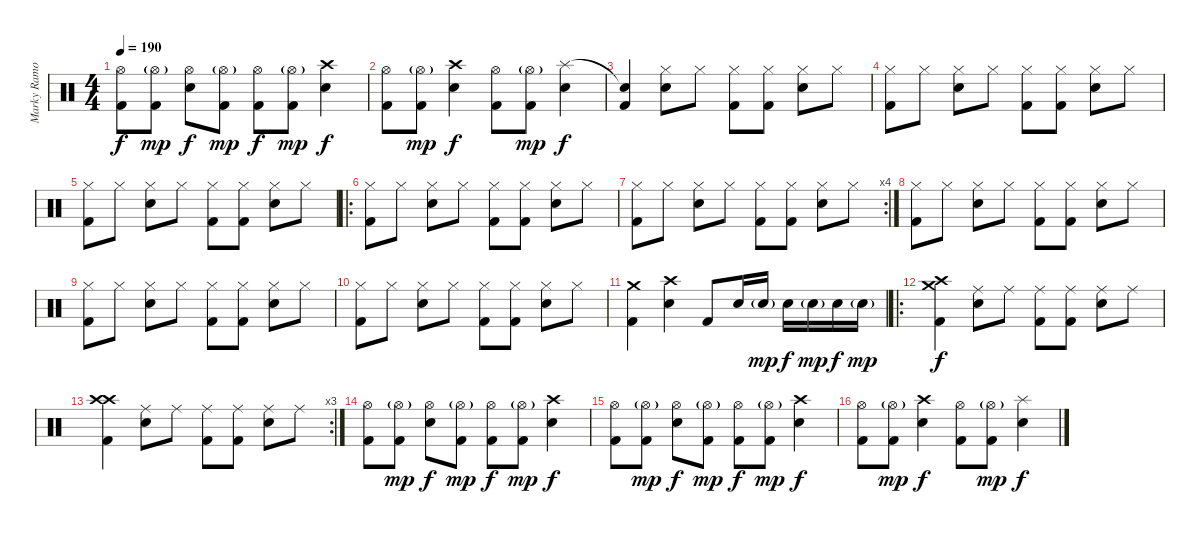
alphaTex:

\track ("Marky Ramone" "Marky Ramo") {instrument percussion}
\staff {score}
\articulation defaults
\ts (4 4)
\tempo 190
\clef neutral
\ks c
("Hi-Hat (open)" "Kick (hit) 2").8{dy f} ("Hi-Hat (open)"{g} "Kick (hit) 2").8{dy mp} ("Hi-Hat (open)" "Electric Snare (hit)").8{dy f} ("Hi-Hat (open)"{g} "Kick (hit) 2").8{dy mp} ("Hi-Hat (open)" "Kick (hit) 2").8{dy f} ("Hi-Hat (open)"{g} "Kick (hit) 2").8{dy mp} ("Crash high (hit)" "Electric Snare (hit)").4{dy f} |
("Hi-Hat (open)" "Kick (hit) 2").8 ("Hi-Hat (open)"{g} "Kick (hit) 2").8{dy mp} ("Crash high (hit)" "Electric Snare (hit)").4{dy f} ("Hi-Hat (open)" "Kick (hit) 2").8 ("Hi-Hat (open)"{g} "Kick (hit) 2").8{dy mp} ("Splash (hit)" "Electric Snare (hit)").4{dy f} |
("Snare (hit)"{t} "Kick (hit) 2").4 ("Hi-Hat (closed)" "Electric Snare (hit)").8 "Hi-Hat (closed)".8 ("Hi-Hat (closed)" "Kick (hit) 2").8 ("Hi-Hat (closed)" "Kick (hit) 2").8 ("Hi-Hat (closed)" "Electric Snare (hit)").8 "Hi-Hat (closed)".8 |
("Hi-Hat (closed)" "Kick (hit) 2").8 "Hi-Hat (closed)".8 ("Hi-Hat (closed)" "Electric Snare (hit)").8 "Hi-Hat (closed)".8 ("Hi-Hat (closed)" "Kick (hit) 2").8 ("Hi-Hat (closed)" "Kick (hit) 2").8 ("Hi-Hat (closed)" "Electric Snare (hit)").8 "Hi-Hat (closed)".8 |
("Hi-Hat (closed)" "Kick (hit) 2").8 "Hi-Hat (closed)".8 ("Hi-Hat (closed)" "Electric Snare (hit)").8 "Hi-Hat (closed)".8 ("Hi-Hat (closed)" "Kick (hit) 2").8 ("Hi-Hat (closed)" "Kick (hit) 2").8 ("Hi-Hat (closed)" "Electric Snare (hit)").8 "Hi-Hat (closed)".8 |
\ro
("Hi-Hat (closed)" "Kick (hit) 2").8 "Hi-Hat (closed)".8 ("Hi-Hat (closed)" "Electric Snare (hit)").8 "Hi-Hat (closed)".8 ("Hi-Hat (closed)" "Kick (hit) 2").8 ("Hi-Hat (closed)" "Kick (hit) 2").8 ("Hi-Hat (closed)" "Electric Snare (hit)").8 "Hi-Hat (closed)".8 |
\rc 4
("Hi-Hat (closed)" "Kick (hit) 2").8 "Hi-Hat (closed)".8 ("Hi-Hat (closed)" "Electric Snare (hit)").8 "Hi-Hat (closed)".8 ("Hi-Hat (closed)" "Kick (hit) 2").8 ("Hi-Hat (closed)" "Kick (hit) 2").8 ("Hi-Hat (closed)" "Electric Snare (hit)").8 "Hi-Hat (closed)".8 |
("Hi-Hat (closed)" "Kick (hit) 2").8 "Hi-Hat (closed)".8 ("Hi-Hat (closed)" "Electric Snare (hit)").8 "Hi-Hat (closed)".8 ("Hi-Hat (closed)" "Kick (hit) 2").8 ("Hi-Hat (closed)" "Kick (hit) 2").8 ("Hi-Hat (closed)" "Electric Snare (hit)").8 "Hi-Hat (closed)".8 |
("Hi-Hat (closed)" "Kick (hit) 2").8 "Hi-Hat (closed)".8 ("Hi-Hat (closed)" "Electric Snare (hit)").8 "Hi-Hat (closed)".8 ("Hi-Hat (closed)" "Kick (hit) 2").8 ("Hi-Hat (closed)" "Kick (hit) 2").8 ("Hi-Hat (closed)" "Electric Snare (hit)").8 "Hi-Hat (closed)".8 |
("Hi-Hat (closed)" "Kick (hit) 2").8 "Hi-Hat (closed)".8 ("Hi-Hat (closed)" "Electric Snare (hit)").8 "Hi-Hat (closed)".8 ("Hi-Hat (closed)" "Kick (hit) 2").8 ("Hi-Hat (closed)" "Kick (hit) 2").8 ("Hi-Hat (closed)" "Electric Snare (hit)").8 "Hi-Hat (closed)".8 |
("Crash medium (hit)" "Kick (hit) 2").4 ("Crash high (hit)" "Electric Snare (hit)").4 "Kick (hit) 2".8 "Electric Snare (hit)".16 "Electric Snare (hit)"{g}.16{dy mp} "Electric Snare (hit)".16{dy f} "Electric Snare (hit)"{g}.16{dy mp} "Electric Snare (hit)".16{dy f} "Electric Snare (hit)"{g}.16{dy mp} |
\ro
("Crash medium (hit)" "Crash high (hit)" "Kick (hit) 2").4{dy f} ("Ride (middle)" "Electric Snare (hit)").8 "Ride (middle)".8 ("Ride (middle)" "Kick (hit) 2").8 ("Ride (middle)" "Kick (hit) 2").8 ("Ride (middle)" "Electric Snare (hit)").8 "Ride (middle)".8 |
\rc 3
("Crash high (hit)" "Crash high (hit)" "Kick (hit) 2").4 ("Ride (middle)" "Electric Snare (hit)").8 "Ride (middle)".8 ("Ride (middle)" "Kick (hit) 2").8 ("Ride (middle)" "Kick (hit) 2").8 ("Ride (middle)" "Electric Snare (hit)").8 "Ride (middle)".8 |
("Hi-Hat (open)" "Kick (hit) 2").8 ("Hi-Hat (open)"{g} "Kick (hit) 2").8{dy mp} ("Hi-Hat (open)" "Electric Snare (hit)").8{dy f} ("Hi-Hat (open)"{g} "Kick (hit) 2").8{dy mp} ("Hi-Hat (open)" "Kick (hit) 2").8{dy f} ("Hi-Hat (open)"{g} "Kick (hit) 2").8{dy mp} ("Crash high (hit)" "Electric Snare (hit)").4{dy f} |
("Hi-Hat (open)" "Kick (hit) 2").8 ("Hi-Hat (open)"{g} "Kick (hit) 2").8{dy mp} ("Hi-Hat (open)" "Electric Snare (hit)").8{dy f} ("Hi-Hat (open)"{g} "Kick (hit) 2").8{dy mp} ("Hi-Hat (open)" "Kick (hit) 2").8{dy f} ("Hi-Hat (open)"{g} "Kick (hit) 2").8{dy mp} ("Crash high (hit)" "Electric Snare (hit)").4{dy f} |
("Hi-Hat (open)" "Kick (hit) 2").8 ("Hi-Hat (open)"{g} "Kick (hit) 2").8{dy mp} ("Crash high (hit)" "Electric Snare (hit)").4{dy f} ("Hi-Hat (open)" "Kick (hit) 2").8 ("Hi-Hat (open)"{g} "Kick (hit) 2").8{dy mp} ("Splash (hit)" "Electric Snare (hit)").4{dy f}
